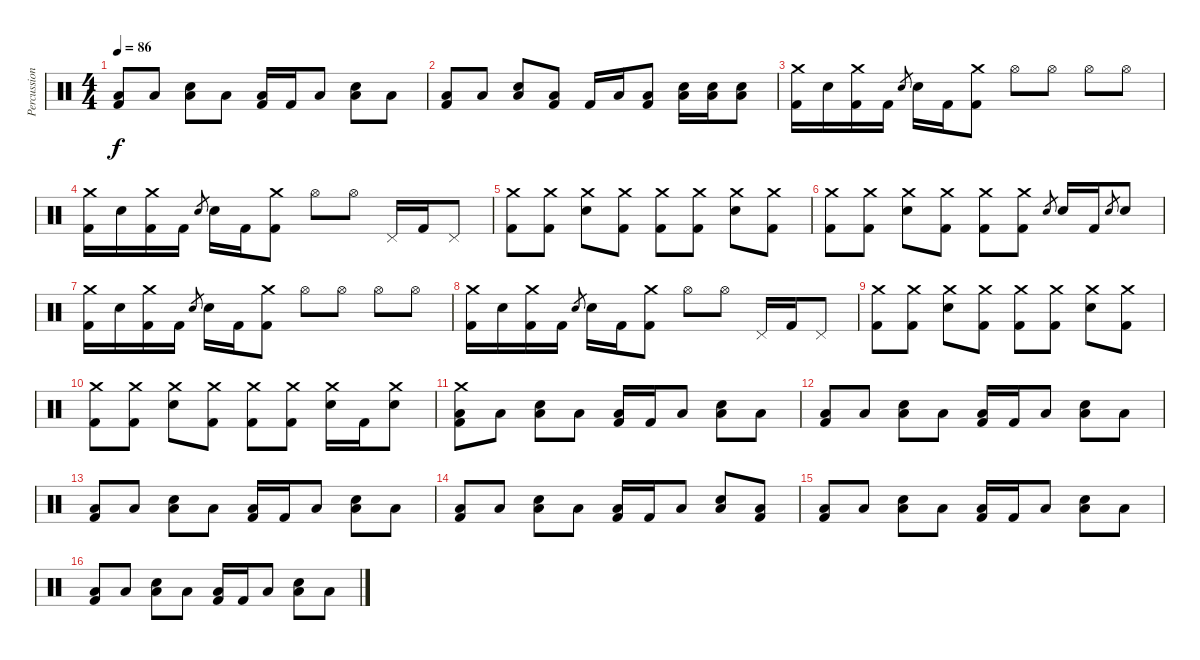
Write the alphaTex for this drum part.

\track ("Percussion" "Percussion") {instrument percussion}
\staff {score}
\articulation defaults
\ts (4 4)
\tempo 86
\clef neutral
\ks c
("Low Floor Tom (hit)" "Kick (hit) 2").8{dy f} "Low Floor Tom (hit)".8 ("Low Floor Tom (hit)" "Electric Snare (hit)").8 "Low Floor Tom (hit)".8 ("Low Floor Tom (hit)" "Kick (hit) 2").16 "Kick (hit) 2".16 "Low Floor Tom (hit)".8 ("Low Floor Tom (hit)" "Electric Snare (hit)").8 "Low Floor Tom (hit)".8 |
("Low Floor Tom (hit)" "Kick (hit) 2").8 "Low Floor Tom (hit)".8 ("Low Floor Tom (hit)" "Electric Snare (hit)").8 ("Low Floor Tom (hit)" "Kick (hit) 2").8 "Kick (hit) 2".16 "Low Floor Tom (hit)".16 ("Low Floor Tom (hit)" "Kick (hit) 2").8 ("Low Floor Tom (hit)" "Electric Snare (hit)").16 ("Low Floor Tom (hit)" "Electric Snare (hit)").16 ("Low Floor Tom (hit)" "Electric Snare (hit)").8 |
("Crash medium (hit)" "Kick (hit) 2").16 "Electric Snare (hit)".16 ("Crash medium (hit)" "Kick (hit) 2").16 "Kick (hit) 2".16 "Electric Snare (hit)".8{gr} "Electric Snare (hit)".16 "Kick (hit) 2".16 ("Crash medium (hit)" "Kick (hit) 2").8 "Hi-Hat (open)".8 "Hi-Hat (open)".8 "Hi-Hat (open)".8 "Hi-Hat (open)".8 |
("Crash medium (hit)" "Kick (hit) 2").16 "Electric Snare (hit)".16 ("Crash medium (hit)" "Kick (hit) 2").16 "Kick (hit) 2".16 "Electric Snare (hit)".8{gr} "Electric Snare (hit)".16 "Kick (hit) 2".16 ("Crash medium (hit)" "Kick (hit) 2").8 "Hi-Hat (open)".8 "Hi-Hat (open)".8 "Pedal Hi-Hat (hit)".16 "Kick (hit) 2".16 "Pedal Hi-Hat (hit)".8 |
("Crash medium (hit)" "Kick (hit) 2").8 ("Crash medium (hit)" "Kick (hit) 2").8 ("Crash medium (hit)" "Electric Snare (hit)").8 ("Crash medium (hit)" "Kick (hit) 2").8 ("Crash medium (hit)" "Kick (hit) 2").8 ("Crash medium (hit)" "Kick (hit) 2").8 ("Crash medium (hit)" "Electric Snare (hit)").8 ("Crash medium (hit)" "Kick (hit) 2").8 |
("Crash medium (hit)" "Kick (hit) 2").8 ("Crash medium (hit)" "Kick (hit) 2").8 ("Crash medium (hit)" "Electric Snare (hit)").8 ("Crash medium (hit)" "Kick (hit) 2").8 ("Crash medium (hit)" "Kick (hit) 2").8 ("Crash medium (hit)" "Kick (hit) 2").8 "Electric Snare (hit)".8{gr} "Electric Snare (hit)".16 "Kick (hit) 2".16 "Electric Snare (hit)".8{gr} "Electric Snare (hit)".8 |
("Crash medium (hit)" "Kick (hit) 2").16 "Electric Snare (hit)".16 ("Crash medium (hit)" "Kick (hit) 2").16 "Kick (hit) 2".16 "Electric Snare (hit)".8{gr} "Electric Snare (hit)".16 "Kick (hit) 2".16 ("Crash medium (hit)" "Kick (hit) 2").8 "Hi-Hat (open)".8 "Hi-Hat (open)".8 "Hi-Hat (open)".8 "Hi-Hat (open)".8 |
("Crash medium (hit)" "Kick (hit) 2").16 "Electric Snare (hit)".16 ("Crash medium (hit)" "Kick (hit) 2").16 "Kick (hit) 2".16 "Electric Snare (hit)".8{gr} "Electric Snare (hit)".16 "Kick (hit) 2".16 ("Crash medium (hit)" "Kick (hit) 2").8 "Hi-Hat (open)".8 "Hi-Hat (open)".8 "Pedal Hi-Hat (hit)".16 "Kick (hit) 2".16 "Pedal Hi-Hat (hit)".8 |
("Crash medium (hit)" "Kick (hit) 2").8 ("Crash medium (hit)" "Kick (hit) 2").8 ("Crash medium (hit)" "Electric Snare (hit)").8 ("Crash medium (hit)" "Kick (hit) 2").8 ("Crash medium (hit)" "Kick (hit) 2").8 ("Crash medium (hit)" "Kick (hit) 2").8 ("Crash medium (hit)" "Electric Snare (hit)").8 ("Crash medium (hit)" "Kick (hit) 2").8 |
("Crash medium (hit)" "Kick (hit) 2").8 ("Crash medium (hit)" "Kick (hit) 2").8 ("Crash medium (hit)" "Electric Snare (hit)").8 ("Crash medium (hit)" "Kick (hit) 2").8 ("Crash medium (hit)" "Kick (hit) 2").8 ("Crash medium (hit)" "Kick (hit) 2").8 ("Crash medium (hit)" "Electric Snare (hit)").16 "Kick (hit) 2".16 ("Crash medium (hit)" "Electric Snare (hit)").8 |
("Crash medium (hit)" "Low Floor Tom (hit)" "Kick (hit) 2").8 "Low Floor Tom (hit)".8 ("Low Floor Tom (hit)" "Electric Snare (hit)").8 "Low Floor Tom (hit)".8 ("Low Floor Tom (hit)" "Kick (hit) 2").16 "Kick (hit) 2".16 "Low Floor Tom (hit)".8 ("Low Floor Tom (hit)" "Electric Snare (hit)").8 "Low Floor Tom (hit)".8 |
("Low Floor Tom (hit)" "Kick (hit) 2").8 "Low Floor Tom (hit)".8 ("Low Floor Tom (hit)" "Electric Snare (hit)").8 "Low Floor Tom (hit)".8 ("Low Floor Tom (hit)" "Kick (hit) 2").16 "Kick (hit) 2".16 "Low Floor Tom (hit)".8 ("Low Floor Tom (hit)" "Electric Snare (hit)").8 "Low Floor Tom (hit)".8 |
("Low Floor Tom (hit)" "Kick (hit) 2").8 "Low Floor Tom (hit)".8 ("Low Floor Tom (hit)" "Electric Snare (hit)").8 "Low Floor Tom (hit)".8 ("Low Floor Tom (hit)" "Kick (hit) 2").16 "Kick (hit) 2".16 "Low Floor Tom (hit)".8 ("Low Floor Tom (hit)" "Electric Snare (hit)").8 "Low Floor Tom (hit)".8 |
("Low Floor Tom (hit)" "Kick (hit) 2").8 "Low Floor Tom (hit)".8 ("Low Floor Tom (hit)" "Electric Snare (hit)").8 "Low Floor Tom (hit)".8 ("Low Floor Tom (hit)" "Kick (hit) 2").16 "Kick (hit) 2".16 "Low Floor Tom (hit)".8 ("Low Floor Tom (hit)" "Electric Snare (hit)").8 ("Low Floor Tom (hit)" "Kick (hit) 2").8 |
("Low Floor Tom (hit)" "Kick (hit) 2").8 "Low Floor Tom (hit)".8 ("Low Floor Tom (hit)" "Electric Snare (hit)").8 "Low Floor Tom (hit)".8 ("Low Floor Tom (hit)" "Kick (hit) 2").16 "Kick (hit) 2".16 "Low Floor Tom (hit)".8 ("Low Floor Tom (hit)" "Electric Snare (hit)").8 "Low Floor Tom (hit)".8 |
("Low Floor Tom (hit)" "Kick (hit) 2").8 "Low Floor Tom (hit)".8 ("Low Floor Tom (hit)" "Electric Snare (hit)").8 "Low Floor Tom (hit)".8 ("Low Floor Tom (hit)" "Kick (hit) 2").16 "Kick (hit) 2".16 "Low Floor Tom (hit)".8 ("Low Floor Tom (hit)" "Electric Snare (hit)").8 "Low Floor Tom (hit)".8
